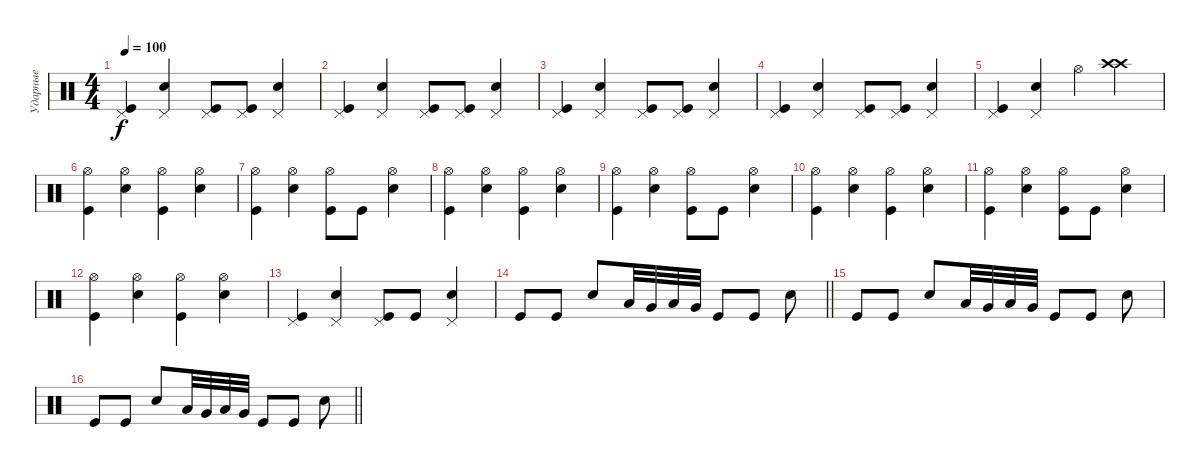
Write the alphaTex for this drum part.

\track ("Ударные" "Ударные") {instrument percussion}
\staff {score}
\articulation defaults
\ts (4 4)
\tempo 100
\clef neutral
\ks c
("Pedal Hi-Hat (hit)" "Kick (hit)").4{dy f} ("Pedal Hi-Hat (hit)" "Snare (hit) 2").4 ("Pedal Hi-Hat (hit)" "Kick (hit)").8 ("Pedal Hi-Hat (hit)" "Kick (hit)").8 ("Pedal Hi-Hat (hit)" "Snare (hit) 2").4 |
("Pedal Hi-Hat (hit)" "Kick (hit)").4 ("Pedal Hi-Hat (hit)" "Snare (hit) 2").4 ("Pedal Hi-Hat (hit)" "Kick (hit)").8 ("Pedal Hi-Hat (hit)" "Kick (hit)").8 ("Pedal Hi-Hat (hit)" "Snare (hit) 2").4 |
("Pedal Hi-Hat (hit)" "Kick (hit)").4 ("Pedal Hi-Hat (hit)" "Snare (hit) 2").4 ("Pedal Hi-Hat (hit)" "Kick (hit)").8 ("Pedal Hi-Hat (hit)" "Kick (hit)").8 ("Pedal Hi-Hat (hit)" "Snare (hit) 2").4 |
("Pedal Hi-Hat (hit)" "Kick (hit)").4 ("Pedal Hi-Hat (hit)" "Snare (hit) 2").4 ("Pedal Hi-Hat (hit)" "Kick (hit)").8 ("Pedal Hi-Hat (hit)" "Kick (hit)").8 ("Pedal Hi-Hat (hit)" "Snare (hit) 2").4 |
("Pedal Hi-Hat (hit)" "Kick (hit)").4 ("Pedal Hi-Hat (hit)" "Snare (hit) 2").4 "Hi-Hat (open)".4 ("Crash high (hit)" "Crash high (hit)").4 |
("Hi-Hat (open)" "Kick (hit)").4 ("Hi-Hat (open)" "Snare (hit) 2").4 ("Hi-Hat (open)" "Kick (hit)").4 ("Hi-Hat (open)" "Snare (hit) 2").4 |
("Hi-Hat (open)" "Kick (hit)").4 ("Hi-Hat (open)" "Snare (hit) 2").4 ("Hi-Hat (open)" "Kick (hit)").8 "Kick (hit)".8 ("Hi-Hat (open)" "Snare (hit) 2").4 |
("Hi-Hat (open)" "Kick (hit)").4 ("Hi-Hat (open)" "Snare (hit) 2").4 ("Hi-Hat (open)" "Kick (hit)").4 ("Hi-Hat (open)" "Snare (hit) 2").4 |
("Hi-Hat (open)" "Kick (hit)").4 ("Hi-Hat (open)" "Snare (hit) 2").4 ("Hi-Hat (open)" "Kick (hit)").8 "Kick (hit)".8 ("Hi-Hat (open)" "Snare (hit) 2").4 |
("Hi-Hat (open)" "Kick (hit)").4 ("Hi-Hat (open)" "Snare (hit) 2").4 ("Hi-Hat (open)" "Kick (hit)").4 ("Hi-Hat (open)" "Snare (hit) 2").4 |
("Hi-Hat (open)" "Kick (hit)").4 ("Hi-Hat (open)" "Snare (hit) 2").4 ("Hi-Hat (open)" "Kick (hit)").8 "Kick (hit)".8 ("Hi-Hat (open)" "Snare (hit) 2").4 |
("Hi-Hat (open)" "Kick (hit)").4 ("Hi-Hat (open)" "Snare (hit) 2").4 ("Hi-Hat (open)" "Kick (hit)").4 ("Hi-Hat (open)" "Snare (hit) 2").4 |
("Pedal Hi-Hat (hit)" "Kick (hit)").4 ("Pedal Hi-Hat (hit)" "Snare (hit) 2").4 ("Pedal Hi-Hat (hit)" "Kick (hit)").8 "Kick (hit)".8 ("Pedal Hi-Hat (hit)" "Snare (hit) 2").4 |
\barLineRight lightlight "Kick (hit)".8 "Kick (hit)".8 "Snare (hit) 2".8 "Low Tom (hit)".32 "Very Low Tom (hit)".32 "Low Tom (hit)".32 "Very Low Tom (hit)".32 "Kick (hit)".8 "Kick (hit)".8 "Snare (hit) 2".8
|
"Kick (hit)".8 "Kick (hit)".8 "Snare (hit) 2".8 "Low Tom (hit)".32 "Very Low Tom (hit)".32 "Low Tom (hit)".32 "Very Low Tom (hit)".32 "Kick (hit)".8 "Kick (hit)".8 "Snare (hit) 2".8 |
\barLineRight lightlight "Kick (hit)".8 "Kick (hit)".8 "Snare (hit) 2".8 "Low Tom (hit)".32 "Very Low Tom (hit)".32 "Low Tom (hit)".32 "Very Low Tom (hit)".32 "Kick (hit)".8 "Kick (hit)".8 "Snare (hit) 2".8
